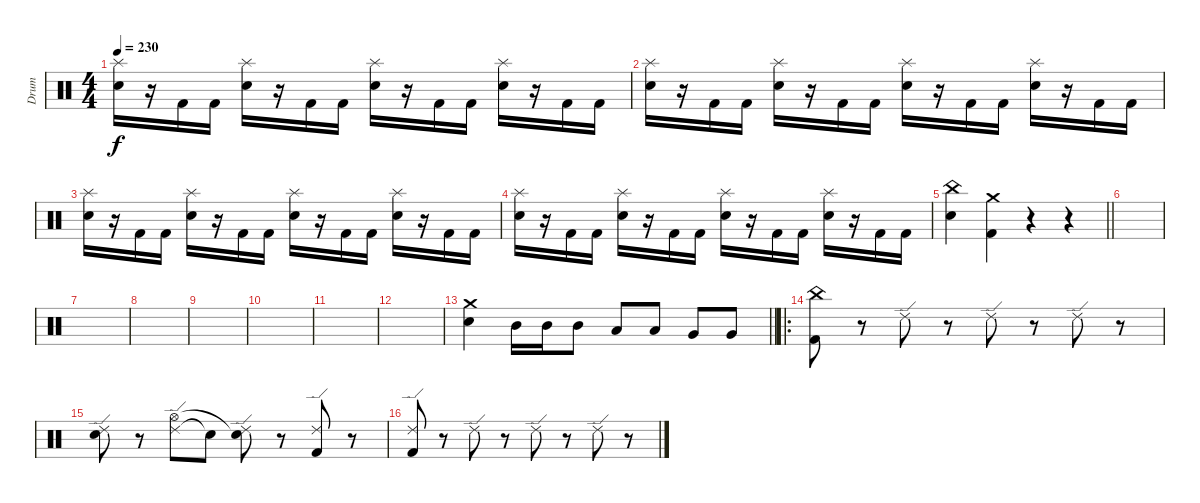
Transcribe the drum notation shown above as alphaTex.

\track ("Drum" "Drum") {instrument percussion}
\staff {score}
\articulation defaults
\ts (4 4)
\tempo 230
\clef neutral
\ks c
("Splash (hit)" "Electric Snare (hit)").16{dy f} r.16 "Kick (hit) 2".16 "Kick (hit) 2".16 ("Splash (hit)" "Electric Snare (hit)").16 r.16 "Kick (hit) 2".16 "Kick (hit) 2".16 ("Splash (hit)" "Electric Snare (hit)").16 r.16 "Kick (hit) 2".16 "Kick (hit) 2".16 ("Splash (hit)" "Electric Snare (hit)").16 r.16 "Kick (hit) 2".16 "Kick (hit) 2".16 |
("Splash (hit)" "Electric Snare (hit)").16 r.16 "Kick (hit) 2".16 "Kick (hit) 2".16 ("Splash (hit)" "Electric Snare (hit)").16 r.16 "Kick (hit) 2".16 "Kick (hit) 2".16 ("Splash (hit)" "Electric Snare (hit)").16 r.16 "Kick (hit) 2".16 "Kick (hit) 2".16 ("Splash (hit)" "Electric Snare (hit)").16 r.16 "Kick (hit) 2".16 "Kick (hit) 2".16 |
("Splash (hit)" "Electric Snare (hit)").16 r.16 "Kick (hit) 2".16 "Kick (hit) 2".16 ("Splash (hit)" "Electric Snare (hit)").16 r.16 "Kick (hit) 2".16 "Kick (hit) 2".16 ("Splash (hit)" "Electric Snare (hit)").16 r.16 "Kick (hit) 2".16 "Kick (hit) 2".16 ("Splash (hit)" "Electric Snare (hit)").16 r.16 "Kick (hit) 2".16 "Kick (hit) 2".16 |
("Splash (hit)" "Electric Snare (hit)").16 r.16 "Kick (hit) 2".16 "Kick (hit) 2".16 ("Splash (hit)" "Electric Snare (hit)").16 r.16 "Kick (hit) 2".16 "Kick (hit) 2".16 ("Splash (hit)" "Electric Snare (hit)").16 r.16 "Kick (hit) 2".16 "Kick (hit) 2".16 ("Splash (hit)" "Electric Snare (hit)").16 r.16 "Kick (hit) 2".16 "Kick (hit) 2".16 |
\barLineRight lightlight
("China (hit)" "Electric Snare (hit)").4 ("Crash medium (hit)" "Kick (hit) 2").4 r.4{volume 0} r.4 |
|
|
|
|
|
|
|
\barLineRight lightlight
("Crash medium (hit)" "Electric Snare (hit)").4 "Mid Tom (hit)".16 "Mid Tom (hit)".16 "Mid Tom (hit)".8 "Low Tom (hit)".8 "Low Tom (hit)".8 "Very Low Tom (hit)".8 "Very Low Tom (hit)".8 |
\ro
("China (hit)" "Kick (hit) 2").8 r.8 "Ride (edge) 2".8 r.8 "Ride (edge) 2".8 r.8 "Ride (edge) 2".8 r.8 |
("Ride (edge) 2" "Electric Snare (hit)").8 r.8 ("Ride (edge) 2" "Hi-Hat (open)").8 "Snare (hit)"{t}.8 ("Ride (edge) 2" "Snare (hit)"{t}).8 r.8 ("Ride (edge) 2" "Kick (hit) 2").8 r.8 |
("Ride (edge) 2" "Kick (hit) 2").8 r.8 "Ride (edge) 2".8 r.8 "Ride (edge) 2".8 r.8 "Ride (edge) 2".8 r.8
